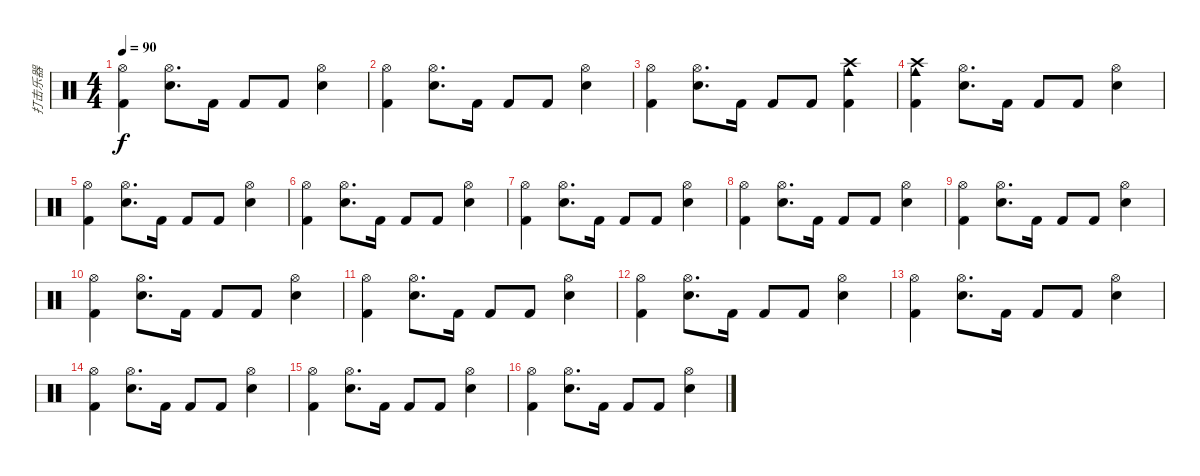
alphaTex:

\track ("打击乐器" "打击乐器") {instrument percussion}
\staff {score}
\articulation defaults
\ts (4 4)
\tempo 90
\clef neutral
\ks c
("Hi-Hat (open)" "Kick (hit) 2").4{dy f} ("Electric Snare (hit)" "Hi-Hat (open)").8{d} "Kick (hit) 2".16 "Kick (hit) 2".8 "Kick (hit) 2".8 ("Electric Snare (hit)" "Hi-Hat (open)").4 |
("Hi-Hat (open)" "Kick (hit) 2").4 ("Electric Snare (hit)" "Hi-Hat (open)").8{d} "Kick (hit) 2".16 "Kick (hit) 2".8 "Kick (hit) 2".8 ("Electric Snare (hit)" "Hi-Hat (open)").4 |
("Hi-Hat (open)" "Kick (hit) 2").4 ("Electric Snare (hit)" "Hi-Hat (open)").8{d} "Kick (hit) 2".16 "Kick (hit) 2".8 "Kick (hit) 2".8 ("Crash high (hit)" "Cowbell medium (hit)" "Kick (hit) 2").4 |
("Crash high (hit)" "Cowbell medium (hit)" "Kick (hit) 2").4 ("Electric Snare (hit)" "Hi-Hat (open)").8{d} "Kick (hit) 2".16 "Kick (hit) 2".8 "Kick (hit) 2".8 ("Electric Snare (hit)" "Hi-Hat (open)").4 |
("Hi-Hat (open)" "Kick (hit) 2").4 ("Electric Snare (hit)" "Hi-Hat (open)").8{d} "Kick (hit) 2".16 "Kick (hit) 2".8 "Kick (hit) 2".8 ("Electric Snare (hit)" "Hi-Hat (open)").4 |
("Hi-Hat (open)" "Kick (hit) 2").4 ("Electric Snare (hit)" "Hi-Hat (open)").8{d} "Kick (hit) 2".16 "Kick (hit) 2".8 "Kick (hit) 2".8 ("Electric Snare (hit)" "Hi-Hat (open)").4 |
("Hi-Hat (open)" "Kick (hit) 2").4 ("Electric Snare (hit)" "Hi-Hat (open)").8{d} "Kick (hit) 2".16 "Kick (hit) 2".8 "Kick (hit) 2".8 ("Electric Snare (hit)" "Hi-Hat (open)").4 |
("Hi-Hat (open)" "Kick (hit) 2").4 ("Electric Snare (hit)" "Hi-Hat (open)").8{d} "Kick (hit) 2".16 "Kick (hit) 2".8 "Kick (hit) 2".8 ("Electric Snare (hit)" "Hi-Hat (open)").4 |
("Hi-Hat (open)" "Kick (hit) 2").4 ("Electric Snare (hit)" "Hi-Hat (open)").8{d} "Kick (hit) 2".16 "Kick (hit) 2".8 "Kick (hit) 2".8 ("Electric Snare (hit)" "Hi-Hat (open)").4 |
("Hi-Hat (open)" "Kick (hit) 2").4 ("Electric Snare (hit)" "Hi-Hat (open)").8{d} "Kick (hit) 2".16 "Kick (hit) 2".8 "Kick (hit) 2".8 ("Electric Snare (hit)" "Hi-Hat (open)").4 |
("Hi-Hat (open)" "Kick (hit) 2").4 ("Electric Snare (hit)" "Hi-Hat (open)").8{d} "Kick (hit) 2".16 "Kick (hit) 2".8 "Kick (hit) 2".8 ("Electric Snare (hit)" "Hi-Hat (open)").4 |
("Hi-Hat (open)" "Kick (hit) 2").4 ("Electric Snare (hit)" "Hi-Hat (open)").8{d} "Kick (hit) 2".16 "Kick (hit) 2".8 "Kick (hit) 2".8 ("Electric Snare (hit)" "Hi-Hat (open)").4 |
("Hi-Hat (open)" "Kick (hit) 2").4 ("Electric Snare (hit)" "Hi-Hat (open)").8{d} "Kick (hit) 2".16 "Kick (hit) 2".8 "Kick (hit) 2".8 ("Electric Snare (hit)" "Hi-Hat (open)").4 |
("Hi-Hat (open)" "Kick (hit) 2").4 ("Electric Snare (hit)" "Hi-Hat (open)").8{d} "Kick (hit) 2".16 "Kick (hit) 2".8 "Kick (hit) 2".8 ("Electric Snare (hit)" "Hi-Hat (open)").4 |
("Hi-Hat (open)" "Kick (hit) 2").4 ("Electric Snare (hit)" "Hi-Hat (open)").8{d} "Kick (hit) 2".16 "Kick (hit) 2".8 "Kick (hit) 2".8 ("Electric Snare (hit)" "Hi-Hat (open)").4 |
("Hi-Hat (open)" "Kick (hit) 2").4 ("Electric Snare (hit)" "Hi-Hat (open)").8{d} "Kick (hit) 2".16 "Kick (hit) 2".8 "Kick (hit) 2".8 ("Electric Snare (hit)" "Hi-Hat (open)").4
